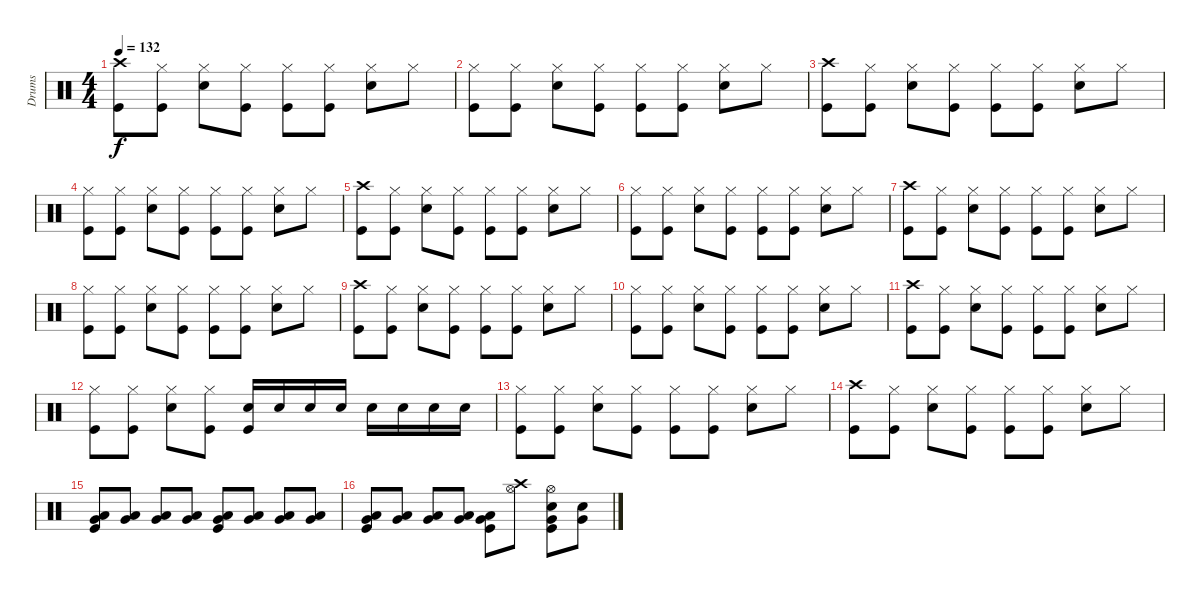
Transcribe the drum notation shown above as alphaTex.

\track ("Drums" "Drums") {instrument percussion}
\staff {score}
\articulation defaults
\ts (4 4)
\tempo 132
\clef neutral
\ks c
("Crash high (hit)" "Kick (hit)").8{dy f} ("Hi-Hat (closed)" "Kick (hit)").8 ("Hi-Hat (closed)" "Snare (hit) 2").8 ("Hi-Hat (closed)" "Kick (hit)").8 ("Hi-Hat (closed)" "Kick (hit)").8 ("Kick (hit)" "Hi-Hat (closed)").8 ("Hi-Hat (closed)" "Snare (hit) 2").8 "Hi-Hat (closed)".8 |
("Kick (hit)" "Hi-Hat (closed)").8 ("Kick (hit)" "Hi-Hat (closed)").8 ("Hi-Hat (closed)" "Snare (hit) 2").8 ("Hi-Hat (closed)" "Kick (hit)").8 ("Kick (hit)" "Hi-Hat (closed)").8 ("Hi-Hat (closed)" "Kick (hit)").8 ("Snare (hit) 2" "Hi-Hat (closed)").8 "Hi-Hat (closed)".8 |
("Crash high (hit)" "Kick (hit)").8 ("Hi-Hat (closed)" "Kick (hit)").8 ("Hi-Hat (closed)" "Snare (hit) 2").8 ("Hi-Hat (closed)" "Kick (hit)").8 ("Hi-Hat (closed)" "Kick (hit)").8 ("Kick (hit)" "Hi-Hat (closed)").8 ("Hi-Hat (closed)" "Snare (hit) 2").8 "Hi-Hat (closed)".8 |
("Kick (hit)" "Hi-Hat (closed)").8 ("Kick (hit)" "Hi-Hat (closed)").8 ("Hi-Hat (closed)" "Snare (hit) 2").8 ("Hi-Hat (closed)" "Kick (hit)").8 ("Kick (hit)" "Hi-Hat (closed)").8 ("Hi-Hat (closed)" "Kick (hit)").8 ("Snare (hit) 2" "Hi-Hat (closed)").8 "Hi-Hat (closed)".8 |
("Crash high (hit)" "Kick (hit)").8 ("Hi-Hat (closed)" "Kick (hit)").8 ("Hi-Hat (closed)" "Snare (hit) 2").8 ("Hi-Hat (closed)" "Kick (hit)").8 ("Hi-Hat (closed)" "Kick (hit)").8 ("Kick (hit)" "Hi-Hat (closed)").8 ("Hi-Hat (closed)" "Snare (hit) 2").8 "Hi-Hat (closed)".8 |
("Kick (hit)" "Hi-Hat (closed)").8 ("Kick (hit)" "Hi-Hat (closed)").8 ("Hi-Hat (closed)" "Snare (hit) 2").8 ("Hi-Hat (closed)" "Kick (hit)").8 ("Kick (hit)" "Hi-Hat (closed)").8 ("Hi-Hat (closed)" "Kick (hit)").8 ("Snare (hit) 2" "Hi-Hat (closed)").8 "Hi-Hat (closed)".8 |
("Crash high (hit)" "Kick (hit)").8 ("Hi-Hat (closed)" "Kick (hit)").8 ("Hi-Hat (closed)" "Snare (hit) 2").8 ("Hi-Hat (closed)" "Kick (hit)").8 ("Hi-Hat (closed)" "Kick (hit)").8 ("Kick (hit)" "Hi-Hat (closed)").8 ("Hi-Hat (closed)" "Snare (hit) 2").8 "Hi-Hat (closed)".8 |
("Kick (hit)" "Hi-Hat (closed)").8 ("Kick (hit)" "Hi-Hat (closed)").8 ("Hi-Hat (closed)" "Snare (hit) 2").8 ("Hi-Hat (closed)" "Kick (hit)").8 ("Kick (hit)" "Hi-Hat (closed)").8 ("Hi-Hat (closed)" "Kick (hit)").8 ("Snare (hit) 2" "Hi-Hat (closed)").8 "Hi-Hat (closed)".8 |
("Crash high (hit)" "Kick (hit)").8 ("Hi-Hat (closed)" "Kick (hit)").8 ("Hi-Hat (closed)" "Snare (hit) 2").8 ("Hi-Hat (closed)" "Kick (hit)").8 ("Hi-Hat (closed)" "Kick (hit)").8 ("Kick (hit)" "Hi-Hat (closed)").8 ("Hi-Hat (closed)" "Snare (hit) 2").8 "Hi-Hat (closed)".8 |
("Kick (hit)" "Hi-Hat (closed)").8 ("Kick (hit)" "Hi-Hat (closed)").8 ("Hi-Hat (closed)" "Snare (hit) 2").8 ("Hi-Hat (closed)" "Kick (hit)").8 ("Kick (hit)" "Hi-Hat (closed)").8 ("Hi-Hat (closed)" "Kick (hit)").8 ("Snare (hit) 2" "Hi-Hat (closed)").8 "Hi-Hat (closed)".8 |
("Crash high (hit)" "Kick (hit)").8 ("Hi-Hat (closed)" "Kick (hit)").8 ("Hi-Hat (closed)" "Snare (hit) 2").8 ("Hi-Hat (closed)" "Kick (hit)").8 ("Hi-Hat (closed)" "Kick (hit)").8 ("Kick (hit)" "Hi-Hat (closed)").8 ("Hi-Hat (closed)" "Snare (hit) 2").8 "Hi-Hat (closed)".8 |
("Kick (hit)" "Hi-Hat (closed)").8 ("Hi-Hat (closed)" "Kick (hit)").8 ("Snare (hit) 2" "Hi-Hat (closed)").8 ("Hi-Hat (closed)" "Kick (hit)").8 ("Snare (hit) 2" "Kick (hit)").16 "Electric Snare (hit)".16 "Snare (hit) 2".16 "Electric Snare (hit)".16 "Snare (hit) 2".16 "Electric Snare (hit)".16 "Snare (hit) 2".16 "Electric Snare (hit)".16 |
("Hi-Hat (closed)" "Kick (hit)").8 ("Hi-Hat (closed)" "Kick (hit)").8 ("Hi-Hat (closed)" "Snare (hit) 2").8 ("Hi-Hat (closed)" "Kick (hit)").8 ("Hi-Hat (closed)" "Kick (hit)").8 ("Kick (hit)" "Hi-Hat (closed)").8 ("Hi-Hat (closed)" "Snare (hit) 2").8 "Hi-Hat (closed)".8 |
("Kick (hit)" "Crash high (hit)").8 ("Kick (hit)" "Hi-Hat (closed)").8 ("Hi-Hat (closed)" "Snare (hit) 2").8 ("Hi-Hat (closed)" "Kick (hit)").8 ("Hi-Hat (closed)" "Kick (hit)").8 ("Hi-Hat (closed)" "Kick (hit)").8 ("Snare (hit) 2" "Hi-Hat (closed)").8 "Hi-Hat (closed)".8 |
("Low Tom (hit)" "Kick (hit)" "Very Low Tom (hit)").8 ("Low Tom (hit)" "Very Low Tom (hit)").8 ("Low Tom (hit)" "Very Low Tom (hit)").8 ("Very Low Tom (hit)" "Low Tom (hit)").8 ("Very Low Tom (hit)" "Low Tom (hit)" "Kick (hit)").8 ("Low Tom (hit)" "Very Low Tom (hit)").8 ("Low Tom (hit)" "Very Low Tom (hit)").8 ("Low Tom (hit)" "Very Low Tom (hit)").8 |
("Very Low Tom (hit)" "Kick (hit)" "Low Floor Tom (hit)").8 ("Very Low Tom (hit)" "Low Floor Tom (hit)").8 ("Very Low Tom (hit)" "Low Floor Tom (hit)").8 ("Very Low Tom (hit)" "Low Floor Tom (hit)").8 ("Low Floor Tom (hit)" "Very Low Tom (hit)" "Kick (hit)").8 ("Hi-Hat (open)" "Crash high (hit)").8 ("Hi-Hat (open)" "Snare (hit) 2" "Very Low Tom (hit)" "Kick (hit)").8 ("Very Low Tom (hit)" "Snare (hit) 2").8
